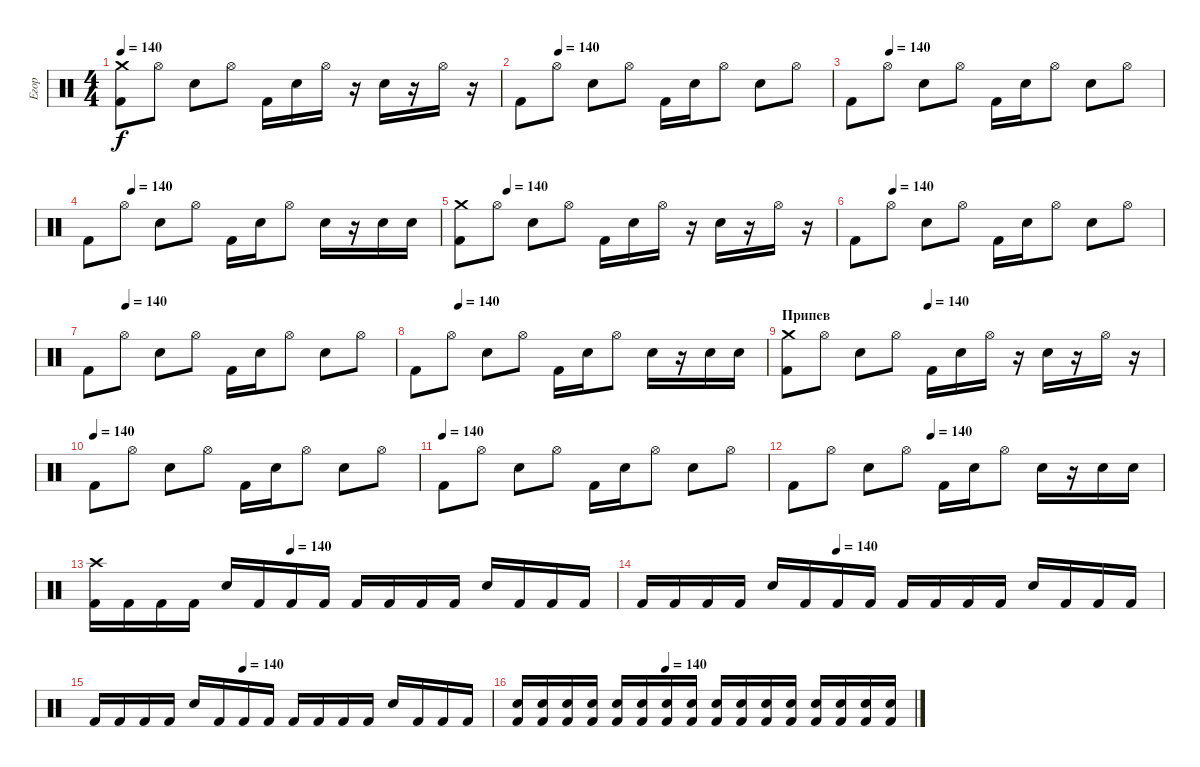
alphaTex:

\track ("Егор" "Егор") {instrument percussion}
\staff {score}
\articulation defaults
\ts (4 4)
\tempo 140
\clef neutral
\ks c
("Crash medium (hit)" "Kick (hit) 2").8{dy f} "Hi-Hat (open)".8 "Snare (hit) 2".8 "Hi-Hat (open)".8 "Kick (hit) 2".16 "Snare (hit) 2".16 "Hi-Hat (open)".16 r.16 "Snare (hit) 2".16 r.16 "Hi-Hat (open)".16 r.16 |
\tempo (140 0.125)
"Kick (hit) 2".8 "Hi-Hat (open)".8 "Snare (hit) 2".8 "Hi-Hat (open)".8 "Kick (hit) 2".16 "Snare (hit) 2".16 "Hi-Hat (open)".8 "Snare (hit) 2".8 "Hi-Hat (open)".8 |
\tempo (140 0.125)
"Kick (hit) 2".8 "Hi-Hat (open)".8 "Snare (hit) 2".8 "Hi-Hat (open)".8 "Kick (hit) 2".16 "Snare (hit) 2".16 "Hi-Hat (open)".8 "Snare (hit) 2".8 "Hi-Hat (open)".8 |
\tempo (140 0.125)
"Kick (hit) 2".8 "Hi-Hat (open)".8 "Snare (hit) 2".8 "Hi-Hat (open)".8 "Kick (hit) 2".16 "Snare (hit) 2".16 "Hi-Hat (open)".8 "Snare (hit) 2".16 r.16 "Snare (hit) 2".16 "Snare (hit) 2".16 |
\tempo (140 0.125)
("Crash medium (hit)" "Kick (hit) 2").8 "Hi-Hat (open)".8 "Snare (hit) 2".8 "Hi-Hat (open)".8 "Kick (hit) 2".16 "Snare (hit) 2".16 "Hi-Hat (open)".16 r.16 "Snare (hit) 2".16 r.16 "Hi-Hat (open)".16 r.16 |
\tempo (140 0.125)
"Kick (hit) 2".8 "Hi-Hat (open)".8 "Snare (hit) 2".8 "Hi-Hat (open)".8 "Kick (hit) 2".16 "Snare (hit) 2".16 "Hi-Hat (open)".8 "Snare (hit) 2".8 "Hi-Hat (open)".8 |
\tempo (140 0.125)
"Kick (hit) 2".8 "Hi-Hat (open)".8 "Snare (hit) 2".8 "Hi-Hat (open)".8 "Kick (hit) 2".16 "Snare (hit) 2".16 "Hi-Hat (open)".8 "Snare (hit) 2".8 "Hi-Hat (open)".8 |
\tempo (140 0.125)
"Kick (hit) 2".8 "Hi-Hat (open)".8 "Snare (hit) 2".8 "Hi-Hat (open)".8 "Kick (hit) 2".16 "Snare (hit) 2".16 "Hi-Hat (open)".8 "Snare (hit) 2".16 r.16 "Snare (hit) 2".16 "Snare (hit) 2".16 |
\section ("" "Припев")
\tempo (140 0.375)
("Crash medium (hit)" "Kick (hit) 2").8 "Hi-Hat (open)".8 "Snare (hit) 2".8 "Hi-Hat (open)".8 "Kick (hit) 2".16 "Snare (hit) 2".16 "Hi-Hat (open)".16 r.16 "Snare (hit) 2".16 r.16 "Hi-Hat (open)".16 r.16 |
\tempo (140)
"Kick (hit) 2".8 "Hi-Hat (open)".8 "Snare (hit) 2".8 "Hi-Hat (open)".8 "Kick (hit) 2".16 "Snare (hit) 2".16 "Hi-Hat (open)".8 "Snare (hit) 2".8 "Hi-Hat (open)".8 |
\tempo (140)
"Kick (hit) 2".8 "Hi-Hat (open)".8 "Snare (hit) 2".8 "Hi-Hat (open)".8 "Kick (hit) 2".16 "Snare (hit) 2".16 "Hi-Hat (open)".8 "Snare (hit) 2".8 "Hi-Hat (open)".8 |
\tempo (140 0.375)
"Kick (hit) 2".8 "Hi-Hat (open)".8 "Snare (hit) 2".8 "Hi-Hat (open)".8 "Kick (hit) 2".16 "Snare (hit) 2".16 "Hi-Hat (open)".8 "Snare (hit) 2".16 r.16 "Snare (hit) 2".16 "Snare (hit) 2".16 |
\tempo (140 0.375)
("Crash high (hit)" "Kick (hit) 2").16 "Kick (hit) 2".16 "Kick (hit) 2".16 "Kick (hit) 2".16 "Snare (hit) 2".16 "Kick (hit) 2".16 "Kick (hit) 2".16 "Kick (hit) 2".16 "Kick (hit) 2".16 "Kick (hit) 2".16 "Kick (hit) 2".16 "Kick (hit) 2".16 "Snare (hit) 2".16 "Kick (hit) 2".16 "Kick (hit) 2".16 "Kick (hit) 2".16 |
\tempo (140 0.375)
"Kick (hit) 2".16 "Kick (hit) 2".16 "Kick (hit) 2".16 "Kick (hit) 2".16 "Snare (hit) 2".16 "Kick (hit) 2".16 "Kick (hit) 2".16 "Kick (hit) 2".16 "Kick (hit) 2".16 "Kick (hit) 2".16 "Kick (hit) 2".16 "Kick (hit) 2".16 "Snare (hit) 2".16 "Kick (hit) 2".16 "Kick (hit) 2".16 "Kick (hit) 2".16 |
\tempo (140 0.375)
"Kick (hit) 2".16 "Kick (hit) 2".16 "Kick (hit) 2".16 "Kick (hit) 2".16 "Snare (hit) 2".16 "Kick (hit) 2".16 "Kick (hit) 2".16 "Kick (hit) 2".16 "Kick (hit) 2".16 "Kick (hit) 2".16 "Kick (hit) 2".16 "Kick (hit) 2".16 "Snare (hit) 2".16 "Kick (hit) 2".16 "Kick (hit) 2".16 "Kick (hit) 2".16 |
\tempo (140 0.375)
("Kick (hit) 2" "Snare (hit) 2").16 ("Kick (hit) 2" "Snare (hit) 2").16 ("Kick (hit) 2" "Snare (hit) 2").16 ("Kick (hit) 2" "Snare (hit) 2").16 ("Kick (hit) 2" "Snare (hit) 2").16 ("Kick (hit) 2" "Snare (hit) 2").16 ("Kick (hit) 2" "Snare (hit) 2").16 ("Kick (hit) 2" "Snare (hit) 2").16 ("Kick (hit) 2" "Snare (hit) 2").16 ("Kick (hit) 2" "Snare (hit) 2").16 ("Kick (hit) 2" "Snare (hit) 2").16 ("Kick (hit) 2" "Snare (hit) 2").16 ("Kick (hit) 2" "Snare (hit) 2").16 ("Kick (hit) 2" "Snare (hit) 2").16 ("Kick (hit) 2" "Snare (hit) 2").16 ("Kick (hit) 2" "Snare (hit) 2").16
